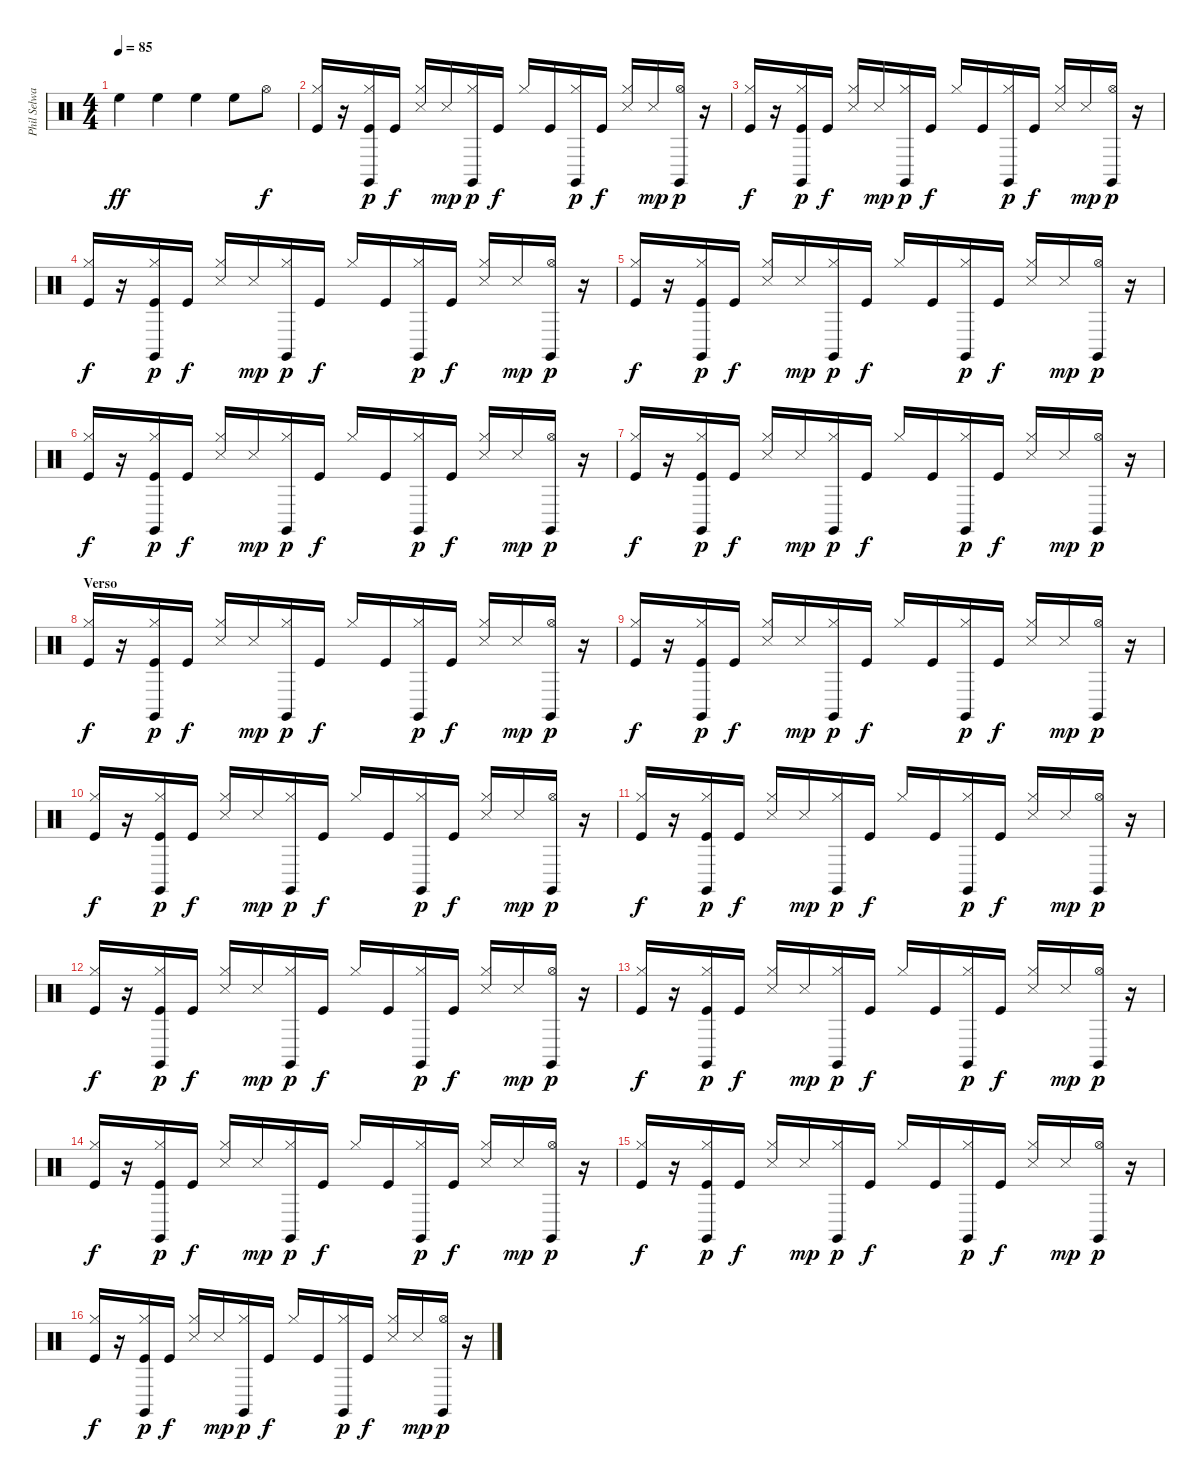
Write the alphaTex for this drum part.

\track ("Phil Selway" "Phil Selwa") {instrument percussion}
\staff {score}
\articulation defaults
\ts (4 4)
\tempo 85
\clef neutral
\ks c "High Floor Tom (hit)".4{dy ff} "High Floor Tom (hit)".4 "High Floor Tom (hit)".4 "High Floor Tom (hit)".8 "Hi-Hat (open)".8{dy f}
|
("Hi-Hat (closed)" "Kick (hit)").16 r.16 ("Hi-Hat (closed)" "Claves (hit)" "Kick (hit)").16{dy p} "Kick (hit)".16{dy f} ("Hi-Hat (closed)" "Snare (side stick) 3").16 "Snare (side stick) 3".16{dy mp} ("Hi-Hat (closed)" "Claves (hit)").16{dy p} "Kick (hit)".16{dy f} "Hi-Hat (closed)".16 "Kick (hit)".16 ("Hi-Hat (closed)" "Claves (hit)").16{dy p} "Kick (hit)".16{dy f} ("Hi-Hat (closed)" "Snare (side stick) 3").16 "Snare (side stick) 3".16{dy mp} ("Hi-Hat (open)" "Claves (hit)").16{dy p} r.16 |
("Hi-Hat (closed)" "Kick (hit)").16{dy f} r.16 ("Hi-Hat (closed)" "Claves (hit)" "Kick (hit)").16{dy p} "Kick (hit)".16{dy f} ("Hi-Hat (closed)" "Snare (side stick) 3").16 "Snare (side stick) 3".16{dy mp} ("Hi-Hat (closed)" "Claves (hit)").16{dy p} "Kick (hit)".16{dy f} "Hi-Hat (closed)".16 "Kick (hit)".16 ("Hi-Hat (closed)" "Claves (hit)").16{dy p} "Kick (hit)".16{dy f} ("Hi-Hat (closed)" "Snare (side stick) 3").16 "Snare (side stick) 3".16{dy mp} ("Hi-Hat (open)" "Claves (hit)").16{dy p} r.16 |
("Hi-Hat (closed)" "Kick (hit)").16{dy f} r.16 ("Hi-Hat (closed)" "Claves (hit)" "Kick (hit)").16{dy p} "Kick (hit)".16{dy f} ("Hi-Hat (closed)" "Snare (side stick) 3").16 "Snare (side stick) 3".16{dy mp} ("Hi-Hat (closed)" "Claves (hit)").16{dy p} "Kick (hit)".16{dy f} "Hi-Hat (closed)".16 "Kick (hit)".16 ("Hi-Hat (closed)" "Claves (hit)").16{dy p} "Kick (hit)".16{dy f} ("Hi-Hat (closed)" "Snare (side stick) 3").16 "Snare (side stick) 3".16{dy mp} ("Hi-Hat (open)" "Claves (hit)").16{dy p} r.16 |
("Hi-Hat (closed)" "Kick (hit)").16{dy f} r.16 ("Hi-Hat (closed)" "Claves (hit)" "Kick (hit)").16{dy p} "Kick (hit)".16{dy f} ("Hi-Hat (closed)" "Snare (side stick) 3").16 "Snare (side stick) 3".16{dy mp} ("Hi-Hat (closed)" "Claves (hit)").16{dy p} "Kick (hit)".16{dy f} "Hi-Hat (closed)".16 "Kick (hit)".16 ("Hi-Hat (closed)" "Claves (hit)").16{dy p} "Kick (hit)".16{dy f} ("Hi-Hat (closed)" "Snare (side stick) 3").16 "Snare (side stick) 3".16{dy mp} ("Hi-Hat (open)" "Claves (hit)").16{dy p} r.16 |
("Hi-Hat (closed)" "Kick (hit)").16{dy f} r.16 ("Hi-Hat (closed)" "Claves (hit)" "Kick (hit)").16{dy p} "Kick (hit)".16{dy f} ("Hi-Hat (closed)" "Snare (side stick) 3").16 "Snare (side stick) 3".16{dy mp} ("Hi-Hat (closed)" "Claves (hit)").16{dy p} "Kick (hit)".16{dy f} "Hi-Hat (closed)".16 "Kick (hit)".16 ("Hi-Hat (closed)" "Claves (hit)").16{dy p} "Kick (hit)".16{dy f} ("Hi-Hat (closed)" "Snare (side stick) 3").16 "Snare (side stick) 3".16{dy mp} ("Hi-Hat (open)" "Claves (hit)").16{dy p} r.16 |
("Hi-Hat (closed)" "Kick (hit)").16{dy f} r.16 ("Hi-Hat (closed)" "Claves (hit)" "Kick (hit)").16{dy p} "Kick (hit)".16{dy f} ("Hi-Hat (closed)" "Snare (side stick) 3").16 "Snare (side stick) 3".16{dy mp} ("Hi-Hat (closed)" "Claves (hit)").16{dy p} "Kick (hit)".16{dy f} "Hi-Hat (closed)".16 "Kick (hit)".16 ("Hi-Hat (closed)" "Claves (hit)").16{dy p} "Kick (hit)".16{dy f} ("Hi-Hat (closed)" "Snare (side stick) 3").16 "Snare (side stick) 3".16{dy mp} ("Hi-Hat (open)" "Claves (hit)").16{dy p} r.16 |
\section ("" "Verso")
("Hi-Hat (closed)" "Kick (hit)").16{dy f} r.16 ("Hi-Hat (closed)" "Claves (hit)" "Kick (hit)").16{dy p} "Kick (hit)".16{dy f} ("Hi-Hat (closed)" "Snare (side stick) 3").16 "Snare (side stick) 3".16{dy mp} ("Hi-Hat (closed)" "Claves (hit)").16{dy p} "Kick (hit)".16{dy f} "Hi-Hat (closed)".16 "Kick (hit)".16 ("Hi-Hat (closed)" "Claves (hit)").16{dy p} "Kick (hit)".16{dy f} ("Hi-Hat (closed)" "Snare (side stick) 3").16 "Snare (side stick) 3".16{dy mp} ("Hi-Hat (open)" "Claves (hit)").16{dy p} r.16 |
("Hi-Hat (closed)" "Kick (hit)").16{dy f} r.16 ("Hi-Hat (closed)" "Claves (hit)" "Kick (hit)").16{dy p} "Kick (hit)".16{dy f} ("Hi-Hat (closed)" "Snare (side stick) 3").16 "Snare (side stick) 3".16{dy mp} ("Hi-Hat (closed)" "Claves (hit)").16{dy p} "Kick (hit)".16{dy f} "Hi-Hat (closed)".16 "Kick (hit)".16 ("Hi-Hat (closed)" "Claves (hit)").16{dy p} "Kick (hit)".16{dy f} ("Hi-Hat (closed)" "Snare (side stick) 3").16 "Snare (side stick) 3".16{dy mp} ("Hi-Hat (open)" "Claves (hit)").16{dy p} r.16 |
("Hi-Hat (closed)" "Kick (hit)").16{dy f} r.16 ("Hi-Hat (closed)" "Claves (hit)" "Kick (hit)").16{dy p} "Kick (hit)".16{dy f} ("Hi-Hat (closed)" "Snare (side stick) 3").16 "Snare (side stick) 3".16{dy mp} ("Hi-Hat (closed)" "Claves (hit)").16{dy p} "Kick (hit)".16{dy f} "Hi-Hat (closed)".16 "Kick (hit)".16 ("Hi-Hat (closed)" "Claves (hit)").16{dy p} "Kick (hit)".16{dy f} ("Hi-Hat (closed)" "Snare (side stick) 3").16 "Snare (side stick) 3".16{dy mp} ("Hi-Hat (open)" "Claves (hit)").16{dy p} r.16 |
("Hi-Hat (closed)" "Kick (hit)").16{dy f} r.16 ("Hi-Hat (closed)" "Claves (hit)" "Kick (hit)").16{dy p} "Kick (hit)".16{dy f} ("Hi-Hat (closed)" "Snare (side stick) 3").16 "Snare (side stick) 3".16{dy mp} ("Hi-Hat (closed)" "Claves (hit)").16{dy p} "Kick (hit)".16{dy f} "Hi-Hat (closed)".16 "Kick (hit)".16 ("Hi-Hat (closed)" "Claves (hit)").16{dy p} "Kick (hit)".16{dy f} ("Hi-Hat (closed)" "Snare (side stick) 3").16 "Snare (side stick) 3".16{dy mp} ("Hi-Hat (open)" "Claves (hit)").16{dy p} r.16 |
("Hi-Hat (closed)" "Kick (hit)").16{dy f} r.16 ("Hi-Hat (closed)" "Claves (hit)" "Kick (hit)").16{dy p} "Kick (hit)".16{dy f} ("Hi-Hat (closed)" "Snare (side stick) 3").16 "Snare (side stick) 3".16{dy mp} ("Hi-Hat (closed)" "Claves (hit)").16{dy p} "Kick (hit)".16{dy f} "Hi-Hat (closed)".16 "Kick (hit)".16 ("Hi-Hat (closed)" "Claves (hit)").16{dy p} "Kick (hit)".16{dy f} ("Hi-Hat (closed)" "Snare (side stick) 3").16 "Snare (side stick) 3".16{dy mp} ("Hi-Hat (open)" "Claves (hit)").16{dy p} r.16 |
("Hi-Hat (closed)" "Kick (hit)").16{dy f} r.16 ("Hi-Hat (closed)" "Claves (hit)" "Kick (hit)").16{dy p} "Kick (hit)".16{dy f} ("Hi-Hat (closed)" "Snare (side stick) 3").16 "Snare (side stick) 3".16{dy mp} ("Hi-Hat (closed)" "Claves (hit)").16{dy p} "Kick (hit)".16{dy f} "Hi-Hat (closed)".16 "Kick (hit)".16 ("Hi-Hat (closed)" "Claves (hit)").16{dy p} "Kick (hit)".16{dy f} ("Hi-Hat (closed)" "Snare (side stick) 3").16 "Snare (side stick) 3".16{dy mp} ("Hi-Hat (open)" "Claves (hit)").16{dy p} r.16 |
("Hi-Hat (closed)" "Kick (hit)").16{dy f} r.16 ("Hi-Hat (closed)" "Claves (hit)" "Kick (hit)").16{dy p} "Kick (hit)".16{dy f} ("Hi-Hat (closed)" "Snare (side stick) 3").16 "Snare (side stick) 3".16{dy mp} ("Hi-Hat (closed)" "Claves (hit)").16{dy p} "Kick (hit)".16{dy f} "Hi-Hat (closed)".16 "Kick (hit)".16 ("Hi-Hat (closed)" "Claves (hit)").16{dy p} "Kick (hit)".16{dy f} ("Hi-Hat (closed)" "Snare (side stick) 3").16 "Snare (side stick) 3".16{dy mp} ("Hi-Hat (open)" "Claves (hit)").16{dy p} r.16 |
("Hi-Hat (closed)" "Kick (hit)").16{dy f} r.16 ("Hi-Hat (closed)" "Claves (hit)" "Kick (hit)").16{dy p} "Kick (hit)".16{dy f} ("Hi-Hat (closed)" "Snare (side stick) 3").16 "Snare (side stick) 3".16{dy mp} ("Hi-Hat (closed)" "Claves (hit)").16{dy p} "Kick (hit)".16{dy f} "Hi-Hat (closed)".16 "Kick (hit)".16 ("Hi-Hat (closed)" "Claves (hit)").16{dy p} "Kick (hit)".16{dy f} ("Hi-Hat (closed)" "Snare (side stick) 3").16 "Snare (side stick) 3".16{dy mp} ("Hi-Hat (open)" "Claves (hit)").16{dy p} r.16 |
("Hi-Hat (closed)" "Kick (hit)").16{dy f} r.16 ("Hi-Hat (closed)" "Claves (hit)" "Kick (hit)").16{dy p} "Kick (hit)".16{dy f} ("Hi-Hat (closed)" "Snare (side stick) 3").16 "Snare (side stick) 3".16{dy mp} ("Hi-Hat (closed)" "Claves (hit)").16{dy p} "Kick (hit)".16{dy f} "Hi-Hat (closed)".16 "Kick (hit)".16 ("Hi-Hat (closed)" "Claves (hit)").16{dy p} "Kick (hit)".16{dy f} ("Hi-Hat (closed)" "Snare (side stick) 3").16 "Snare (side stick) 3".16{dy mp} ("Hi-Hat (open)" "Claves (hit)").16{dy p} r.16
